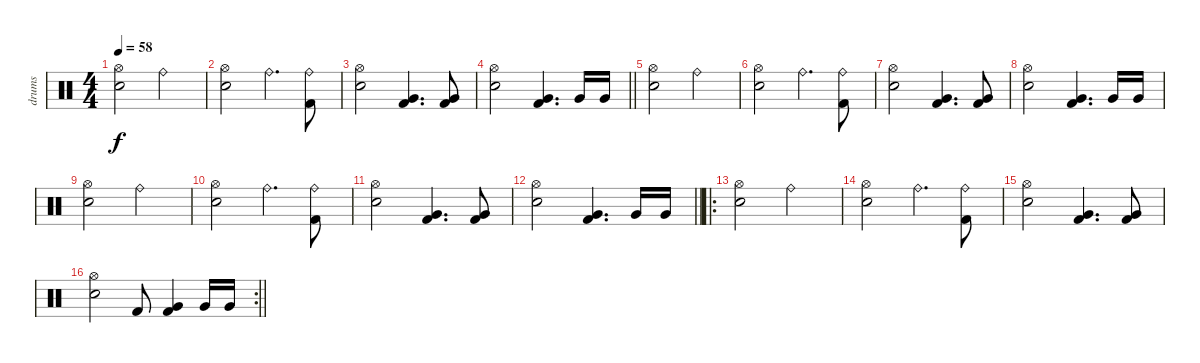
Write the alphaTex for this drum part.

\track ("drums" "drums") {instrument percussion}
\staff {score}
\articulation defaults
\ts (4 4)
\tempo 58
\clef neutral
\ks c
("Hi-Hat (open)" "Snare (hit) 2").2{dy f} "Ride (bell)".2 |
("Hi-Hat (open)" "Snare (hit) 2").2 "Ride (bell)".4{d} ("Ride (bell)" "Kick (hit) 2").8 |
("Hi-Hat (open)" "Snare (hit) 2").2 ("Kick (hit) 2" "Very Low Tom (hit)").4{d} ("Kick (hit) 2" "Very Low Tom (hit)").8 |
\barLineRight lightlight
("Hi-Hat (open)" "Snare (hit) 2").2 ("Kick (hit) 2" "Very Low Tom (hit)").4{d} "Very Low Tom (hit)".16 "Very Low Tom (hit)".16 |
\section ("" "")
("Hi-Hat (open)" "Snare (hit) 2").2 "Ride (bell)".2 |
("Hi-Hat (open)" "Snare (hit) 2").2 "Ride (bell)".4{d} ("Ride (bell)" "Kick (hit) 2").8 |
("Hi-Hat (open)" "Snare (hit) 2").2 ("Kick (hit) 2" "Very Low Tom (hit)").4{d} ("Kick (hit) 2" "Very Low Tom (hit)").8 |
("Hi-Hat (open)" "Snare (hit) 2").2 ("Kick (hit) 2" "Very Low Tom (hit)").4{d} "Very Low Tom (hit)".16 "Very Low Tom (hit)".16 |
("Hi-Hat (open)" "Snare (hit) 2").2 "Ride (bell)".2 |
("Hi-Hat (open)" "Snare (hit) 2").2 "Ride (bell)".4{d} ("Ride (bell)" "Kick (hit) 2").8 |
("Hi-Hat (open)" "Snare (hit) 2").2 ("Kick (hit) 2" "Very Low Tom (hit)").4{d} ("Kick (hit) 2" "Very Low Tom (hit)").8 |
\barLineRight lightlight
("Hi-Hat (open)" "Snare (hit) 2").2 ("Kick (hit) 2" "Very Low Tom (hit)").4{d} "Very Low Tom (hit)".16 "Very Low Tom (hit)".16 |
\ro
("Hi-Hat (open)" "Snare (hit) 2").2 "Ride (bell)".2 |
("Hi-Hat (open)" "Snare (hit) 2").2 "Ride (bell)".4{d} ("Ride (bell)" "Kick (hit) 2").8 |
("Hi-Hat (open)" "Snare (hit) 2").2 ("Kick (hit) 2" "Very Low Tom (hit)").4{d} ("Kick (hit) 2" "Very Low Tom (hit)").8 |
\rc 2
\barLineRight lightlight
("Hi-Hat (open)" "Snare (hit) 2").2 "Kick (hit) 2".8 ("Kick (hit) 2" "Very Low Tom (hit)").4 "Very Low Tom (hit)".16 "Very Low Tom (hit)".16
